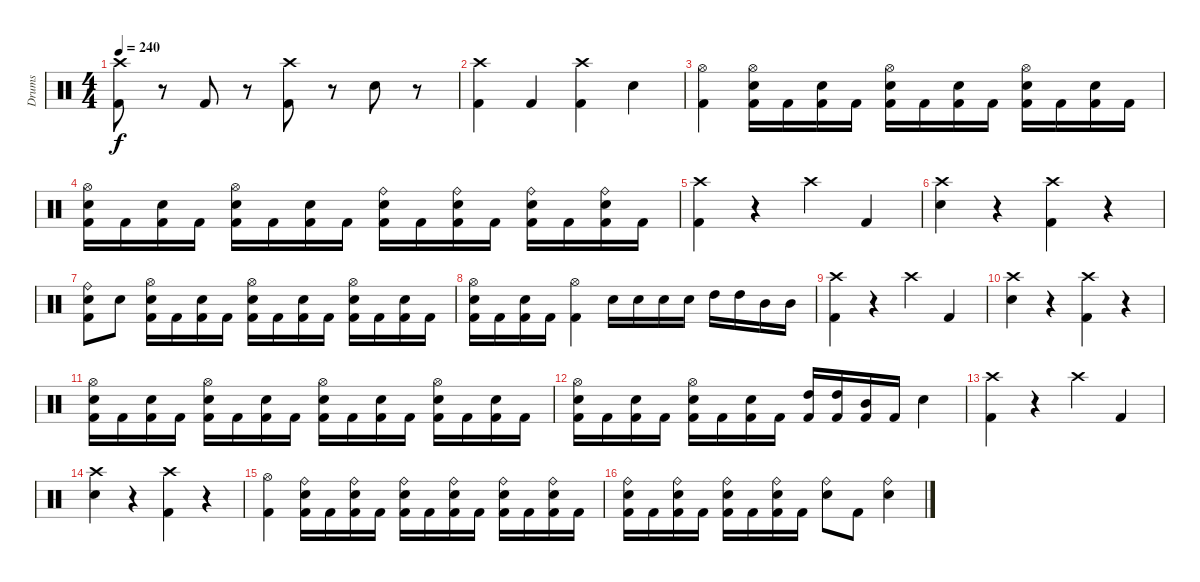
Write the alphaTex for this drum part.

\track ("Drums" "Drums") {instrument percussion}
\staff {score}
\articulation defaults
\ts (4 4)
\tempo 240
\clef neutral
\ks c
("Crash high (hit)" "Kick (hit) 2").8{dy f} r.8 "Kick (hit) 2".8 r.8 ("Crash high (hit)" "Kick (hit) 2").8 r.8 "Snare (hit) 2".8 r.8 |
("Crash high (hit)" "Kick (hit) 2").4 "Kick (hit) 2".4 ("Crash high (hit)" "Kick (hit) 2").4 "Snare (hit) 2".4 |
("Hi-Hat (open)" "Kick (hit) 2").4 ("Hi-Hat (open)" "Snare (hit) 2" "Kick (hit) 2").16 "Kick (hit) 2".16 ("Snare (hit) 2" "Kick (hit) 2").16 "Kick (hit) 2".16 ("Hi-Hat (open)" "Snare (hit) 2" "Kick (hit) 2").16 "Kick (hit) 2".16 ("Snare (hit) 2" "Kick (hit) 2").16 "Kick (hit) 2".16 ("Hi-Hat (open)" "Snare (hit) 2" "Kick (hit) 2").16 "Kick (hit) 2".16 ("Snare (hit) 2" "Kick (hit) 2").16 "Kick (hit) 2".16 |
("Hi-Hat (open)" "Snare (hit) 2" "Kick (hit) 2").16 "Kick (hit) 2".16 ("Snare (hit) 2" "Kick (hit) 2").16 "Kick (hit) 2".16 ("Hi-Hat (open)" "Snare (hit) 2" "Kick (hit) 2").16 "Kick (hit) 2".16 ("Snare (hit) 2" "Kick (hit) 2").16 "Kick (hit) 2".16 ("Ride (bell)" "Snare (hit) 2" "Kick (hit) 2").16 "Kick (hit) 2".16 ("Ride (bell)" "Snare (hit) 2" "Kick (hit) 2").16 "Kick (hit) 2".16 ("Ride (bell)" "Snare (hit) 2" "Kick (hit) 2").16 "Kick (hit) 2".16 ("Ride (bell)" "Snare (hit) 2" "Kick (hit) 2").16 "Kick (hit) 2".16 |
("Crash high (hit)" "Kick (hit) 2").4 r.4 "Crash high (hit)".4 "Kick (hit) 2".4 |
("Crash high (hit)" "Snare (hit) 2").4 r.4 ("Crash high (hit)" "Kick (hit) 2").4 r.4 |
("Ride (bell)" "Snare (hit) 2" "Kick (hit) 2").8 "Snare (hit) 2".8 ("Hi-Hat (open)" "Snare (hit) 2" "Kick (hit) 2").16 "Kick (hit) 2".16 ("Snare (hit) 2" "Kick (hit) 2").16 "Kick (hit) 2".16 ("Hi-Hat (open)" "Snare (hit) 2" "Kick (hit) 2").16 "Kick (hit) 2".16 ("Snare (hit) 2" "Kick (hit) 2").16 "Kick (hit) 2".16 ("Hi-Hat (open)" "Snare (hit) 2" "Kick (hit) 2").16 "Kick (hit) 2".16 ("Snare (hit) 2" "Kick (hit) 2").16 "Kick (hit) 2".16 |
("Hi-Hat (open)" "Snare (hit) 2" "Kick (hit) 2").16 "Kick (hit) 2".16 ("Snare (hit) 2" "Kick (hit) 2").16 "Kick (hit) 2".16 ("Hi-Hat (open)" "Kick (hit) 2").4 "Snare (hit) 2".16 "Snare (hit) 2".16 "Snare (hit) 2".16 "Snare (hit) 2".16 "High Tom (hit)".16 "High Tom (hit)".16 "Mid Tom (hit)".16 "Mid Tom (hit)".16 |
("Crash high (hit)" "Kick (hit) 2").4 r.4 "Crash high (hit)".4 "Kick (hit) 2".4 |
("Crash high (hit)" "Snare (hit) 2").4 r.4 ("Crash high (hit)" "Kick (hit) 2").4 r.4 |
("Hi-Hat (open)" "Snare (hit) 2" "Kick (hit) 2").16 "Kick (hit) 2".16 ("Snare (hit) 2" "Kick (hit) 2").16 "Kick (hit) 2".16 ("Hi-Hat (open)" "Snare (hit) 2" "Kick (hit) 2").16 "Kick (hit) 2".16 ("Snare (hit) 2" "Kick (hit) 2").16 "Kick (hit) 2".16 ("Hi-Hat (open)" "Snare (hit) 2" "Kick (hit) 2").16 "Kick (hit) 2".16 ("Snare (hit) 2" "Kick (hit) 2").16 "Kick (hit) 2".16 ("Hi-Hat (open)" "Snare (hit) 2" "Kick (hit) 2").16 "Kick (hit) 2".16 ("Snare (hit) 2" "Kick (hit) 2").16 "Kick (hit) 2".16 |
("Hi-Hat (open)" "Snare (hit) 2" "Kick (hit) 2").16 "Kick (hit) 2".16 ("Snare (hit) 2" "Kick (hit) 2").16 "Kick (hit) 2".16 ("Hi-Hat (open)" "Snare (hit) 2" "Kick (hit) 2").16 "Kick (hit) 2".16 ("Snare (hit) 2" "Kick (hit) 2").16 "Kick (hit) 2".16 ("High Tom (hit)" "Kick (hit) 2").16 ("High Tom (hit)" "Kick (hit) 2").16 ("Mid Tom (hit)" "Kick (hit) 2").16 "Kick (hit) 2".16 "Snare (hit) 2".4 |
("Crash high (hit)" "Kick (hit) 2").4 r.4 "Crash high (hit)".4 "Kick (hit) 2".4 |
("Crash high (hit)" "Snare (hit) 2").4 r.4 ("Crash high (hit)" "Kick (hit) 2").4 r.4 |
("Hi-Hat (open)" "Kick (hit) 2").4 ("Ride (bell)" "Snare (hit) 2" "Kick (hit) 2").16 "Kick (hit) 2".16 ("Ride (bell)" "Snare (hit) 2" "Kick (hit) 2").16 "Kick (hit) 2".16 ("Ride (bell)" "Snare (hit) 2" "Kick (hit) 2").16 "Kick (hit) 2".16 ("Ride (bell)" "Snare (hit) 2" "Kick (hit) 2").16 "Kick (hit) 2".16 ("Ride (bell)" "Snare (hit) 2" "Kick (hit) 2").16 "Kick (hit) 2".16 ("Ride (bell)" "Snare (hit) 2" "Kick (hit) 2").16 "Kick (hit) 2".16 |
("Ride (bell)" "Snare (hit) 2" "Kick (hit) 2").16 "Kick (hit) 2".16 ("Ride (bell)" "Snare (hit) 2" "Kick (hit) 2").16 "Kick (hit) 2".16 ("Ride (bell)" "Snare (hit) 2" "Kick (hit) 2").16 "Kick (hit) 2".16 ("Ride (bell)" "Snare (hit) 2" "Kick (hit) 2").16 "Kick (hit) 2".16 ("Ride (bell)" "Snare (hit) 2").8 "Kick (hit) 2".8 ("Ride (bell)" "Snare (hit) 2").4
